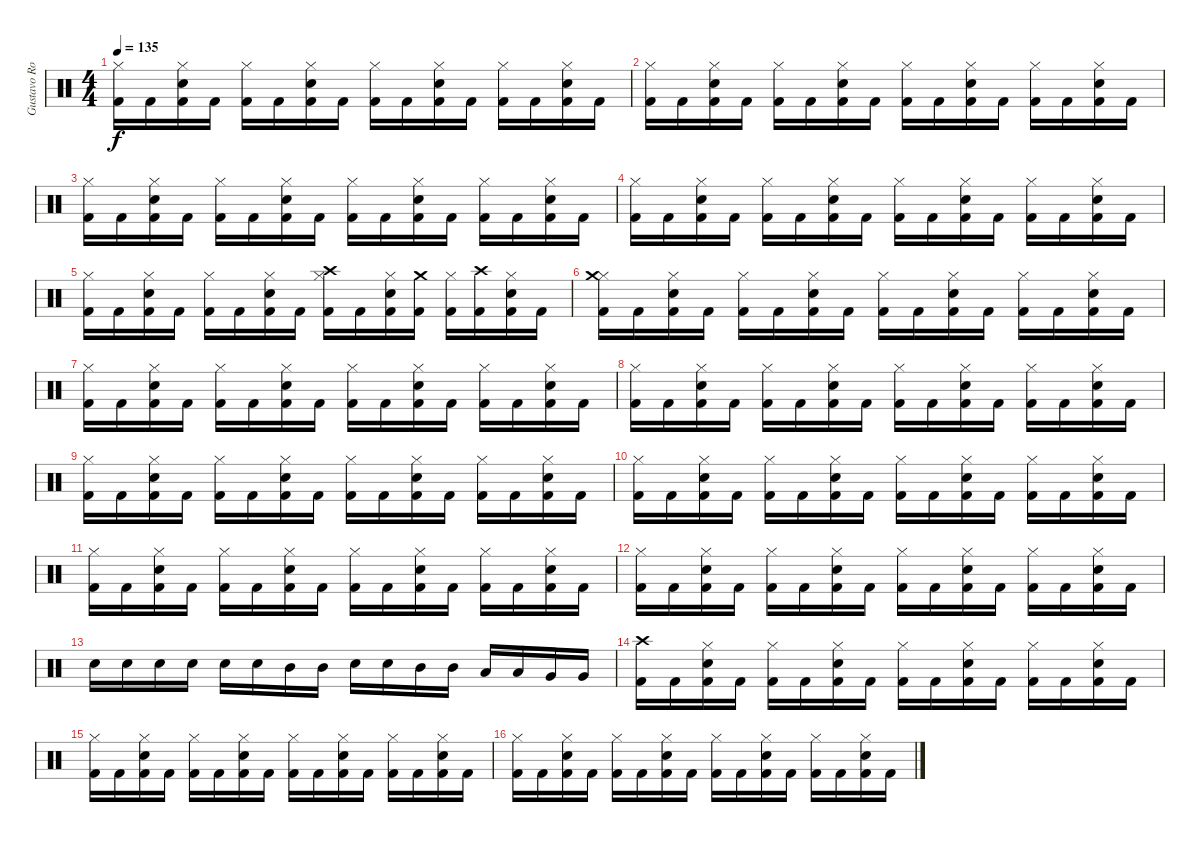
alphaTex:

\track ("Gustavo Rowek" "Gustavo Ro") {instrument percussion}
\staff {score}
\articulation defaults
\ts (4 4)
\tempo 135
\clef neutral
\ks c
("Kick (hit) 2" "Hi-Hat (closed)").16{dy f} "Kick (hit) 2".16 ("Kick (hit) 2" "Hi-Hat (closed)" "Electric Snare (hit)").16 "Kick (hit) 2".16 ("Kick (hit) 2" "Hi-Hat (closed)").16 "Kick (hit) 2".16 ("Kick (hit) 2" "Hi-Hat (closed)" "Electric Snare (hit)").16 "Kick (hit) 2".16 ("Kick (hit) 2" "Hi-Hat (closed)").16 "Kick (hit) 2".16 ("Kick (hit) 2" "Hi-Hat (closed)" "Electric Snare (hit)").16 "Kick (hit) 2".16 ("Kick (hit) 2" "Hi-Hat (closed)").16 "Kick (hit) 2".16 ("Kick (hit) 2" "Hi-Hat (closed)" "Electric Snare (hit)").16 "Kick (hit) 2".16 |
("Kick (hit) 2" "Hi-Hat (closed)").16 "Kick (hit) 2".16 ("Kick (hit) 2" "Hi-Hat (closed)" "Electric Snare (hit)").16 "Kick (hit) 2".16 ("Kick (hit) 2" "Hi-Hat (closed)").16 "Kick (hit) 2".16 ("Kick (hit) 2" "Hi-Hat (closed)" "Electric Snare (hit)").16 "Kick (hit) 2".16 ("Kick (hit) 2" "Hi-Hat (closed)").16 "Kick (hit) 2".16 ("Kick (hit) 2" "Hi-Hat (closed)" "Electric Snare (hit)").16 "Kick (hit) 2".16 ("Kick (hit) 2" "Hi-Hat (closed)").16 "Kick (hit) 2".16 ("Kick (hit) 2" "Hi-Hat (closed)" "Electric Snare (hit)").16 "Kick (hit) 2".16 |
("Kick (hit) 2" "Hi-Hat (closed)").16 "Kick (hit) 2".16 ("Kick (hit) 2" "Hi-Hat (closed)" "Electric Snare (hit)").16 "Kick (hit) 2".16 ("Kick (hit) 2" "Hi-Hat (closed)").16 "Kick (hit) 2".16 ("Kick (hit) 2" "Hi-Hat (closed)" "Electric Snare (hit)").16 "Kick (hit) 2".16 ("Kick (hit) 2" "Hi-Hat (closed)").16 "Kick (hit) 2".16 ("Kick (hit) 2" "Hi-Hat (closed)" "Electric Snare (hit)").16 "Kick (hit) 2".16 ("Kick (hit) 2" "Hi-Hat (closed)").16 "Kick (hit) 2".16 ("Kick (hit) 2" "Hi-Hat (closed)" "Electric Snare (hit)").16 "Kick (hit) 2".16 |
("Kick (hit) 2" "Hi-Hat (closed)").16 "Kick (hit) 2".16 ("Kick (hit) 2" "Hi-Hat (closed)" "Electric Snare (hit)").16 "Kick (hit) 2".16 ("Kick (hit) 2" "Hi-Hat (closed)").16 "Kick (hit) 2".16 ("Kick (hit) 2" "Hi-Hat (closed)" "Electric Snare (hit)").16 "Kick (hit) 2".16 ("Kick (hit) 2" "Hi-Hat (closed)").16 "Kick (hit) 2".16 ("Kick (hit) 2" "Hi-Hat (closed)" "Electric Snare (hit)").16 "Kick (hit) 2".16 ("Kick (hit) 2" "Hi-Hat (closed)").16 "Kick (hit) 2".16 ("Kick (hit) 2" "Hi-Hat (closed)" "Electric Snare (hit)").16 "Kick (hit) 2".16 |
("Kick (hit) 2" "Hi-Hat (closed)").16 "Kick (hit) 2".16 ("Kick (hit) 2" "Hi-Hat (closed)" "Electric Snare (hit)").16 "Kick (hit) 2".16 ("Kick (hit) 2" "Hi-Hat (closed)").16 "Kick (hit) 2".16 ("Kick (hit) 2" "Hi-Hat (closed)" "Electric Snare (hit)").16 "Kick (hit) 2".16 ("Kick (hit) 2" "Hi-Hat (closed)" "Crash high (hit)").16 "Kick (hit) 2".16 ("Kick (hit) 2" "Hi-Hat (closed)" "Electric Snare (hit)").16 ("Kick (hit) 2" "Crash medium (hit)").16 ("Kick (hit) 2" "Hi-Hat (closed)").16 ("Kick (hit) 2" "Crash high (hit)").16 ("Kick (hit) 2" "Hi-Hat (closed)" "Electric Snare (hit)").16 "Kick (hit) 2".16 |
("Kick (hit) 2" "Hi-Hat (closed)" "Crash medium (hit)").16 "Kick (hit) 2".16 ("Kick (hit) 2" "Hi-Hat (closed)" "Electric Snare (hit)").16 "Kick (hit) 2".16 ("Kick (hit) 2" "Hi-Hat (closed)").16 "Kick (hit) 2".16 ("Kick (hit) 2" "Hi-Hat (closed)" "Electric Snare (hit)").16 "Kick (hit) 2".16 ("Kick (hit) 2" "Hi-Hat (closed)").16 "Kick (hit) 2".16 ("Kick (hit) 2" "Hi-Hat (closed)" "Electric Snare (hit)").16 "Kick (hit) 2".16 ("Kick (hit) 2" "Hi-Hat (closed)").16 "Kick (hit) 2".16 ("Kick (hit) 2" "Hi-Hat (closed)" "Electric Snare (hit)").16 "Kick (hit) 2".16 |
("Kick (hit) 2" "Hi-Hat (closed)").16 "Kick (hit) 2".16 ("Kick (hit) 2" "Hi-Hat (closed)" "Electric Snare (hit)").16 "Kick (hit) 2".16 ("Kick (hit) 2" "Hi-Hat (closed)").16 "Kick (hit) 2".16 ("Kick (hit) 2" "Hi-Hat (closed)" "Electric Snare (hit)").16 "Kick (hit) 2".16 ("Kick (hit) 2" "Hi-Hat (closed)").16 "Kick (hit) 2".16 ("Kick (hit) 2" "Hi-Hat (closed)" "Electric Snare (hit)").16 "Kick (hit) 2".16 ("Kick (hit) 2" "Hi-Hat (closed)").16 "Kick (hit) 2".16 ("Kick (hit) 2" "Hi-Hat (closed)" "Electric Snare (hit)").16 "Kick (hit) 2".16 |
("Kick (hit) 2" "Hi-Hat (closed)").16 "Kick (hit) 2".16 ("Kick (hit) 2" "Hi-Hat (closed)" "Electric Snare (hit)").16 "Kick (hit) 2".16 ("Kick (hit) 2" "Hi-Hat (closed)").16 "Kick (hit) 2".16 ("Kick (hit) 2" "Hi-Hat (closed)" "Electric Snare (hit)").16 "Kick (hit) 2".16 ("Kick (hit) 2" "Hi-Hat (closed)").16 "Kick (hit) 2".16 ("Kick (hit) 2" "Hi-Hat (closed)" "Electric Snare (hit)").16 "Kick (hit) 2".16 ("Kick (hit) 2" "Hi-Hat (closed)").16 "Kick (hit) 2".16 ("Kick (hit) 2" "Hi-Hat (closed)" "Electric Snare (hit)").16 "Kick (hit) 2".16 |
("Kick (hit) 2" "Hi-Hat (closed)").16 "Kick (hit) 2".16 ("Kick (hit) 2" "Hi-Hat (closed)" "Electric Snare (hit)").16 "Kick (hit) 2".16 ("Kick (hit) 2" "Hi-Hat (closed)").16 "Kick (hit) 2".16 ("Kick (hit) 2" "Hi-Hat (closed)" "Electric Snare (hit)").16 "Kick (hit) 2".16 ("Kick (hit) 2" "Hi-Hat (closed)").16 "Kick (hit) 2".16 ("Kick (hit) 2" "Hi-Hat (closed)" "Electric Snare (hit)").16 "Kick (hit) 2".16 ("Kick (hit) 2" "Hi-Hat (closed)").16 "Kick (hit) 2".16 ("Kick (hit) 2" "Hi-Hat (closed)" "Electric Snare (hit)").16 "Kick (hit) 2".16 |
("Kick (hit) 2" "Hi-Hat (closed)").16 "Kick (hit) 2".16 ("Kick (hit) 2" "Hi-Hat (closed)" "Electric Snare (hit)").16 "Kick (hit) 2".16 ("Kick (hit) 2" "Hi-Hat (closed)").16 "Kick (hit) 2".16 ("Kick (hit) 2" "Hi-Hat (closed)" "Electric Snare (hit)").16 "Kick (hit) 2".16 ("Kick (hit) 2" "Hi-Hat (closed)").16 "Kick (hit) 2".16 ("Kick (hit) 2" "Hi-Hat (closed)" "Electric Snare (hit)").16 "Kick (hit) 2".16 ("Kick (hit) 2" "Hi-Hat (closed)").16 "Kick (hit) 2".16 ("Kick (hit) 2" "Hi-Hat (closed)" "Electric Snare (hit)").16 "Kick (hit) 2".16 |
("Kick (hit) 2" "Hi-Hat (closed)").16 "Kick (hit) 2".16 ("Kick (hit) 2" "Hi-Hat (closed)" "Electric Snare (hit)").16 "Kick (hit) 2".16 ("Kick (hit) 2" "Hi-Hat (closed)").16 "Kick (hit) 2".16 ("Kick (hit) 2" "Hi-Hat (closed)" "Electric Snare (hit)").16 "Kick (hit) 2".16 ("Kick (hit) 2" "Hi-Hat (closed)").16 "Kick (hit) 2".16 ("Kick (hit) 2" "Hi-Hat (closed)" "Electric Snare (hit)").16 "Kick (hit) 2".16 ("Kick (hit) 2" "Hi-Hat (closed)").16 "Kick (hit) 2".16 ("Kick (hit) 2" "Hi-Hat (closed)" "Electric Snare (hit)").16 "Kick (hit) 2".16 |
("Kick (hit) 2" "Hi-Hat (closed)").16 "Kick (hit) 2".16 ("Kick (hit) 2" "Hi-Hat (closed)" "Electric Snare (hit)").16 "Kick (hit) 2".16 ("Kick (hit) 2" "Hi-Hat (closed)").16 "Kick (hit) 2".16 ("Kick (hit) 2" "Hi-Hat (closed)" "Electric Snare (hit)").16 "Kick (hit) 2".16 ("Kick (hit) 2" "Hi-Hat (closed)").16 "Kick (hit) 2".16 ("Kick (hit) 2" "Hi-Hat (closed)" "Electric Snare (hit)").16 "Kick (hit) 2".16 ("Kick (hit) 2" "Hi-Hat (closed)").16 "Kick (hit) 2".16 ("Kick (hit) 2" "Hi-Hat (closed)" "Electric Snare (hit)").16 "Kick (hit) 2".16 |
"Electric Snare (hit)".16 "Electric Snare (hit)".16 "Electric Snare (hit)".16 "Electric Snare (hit)".16 "Electric Snare (hit)".16 "Electric Snare (hit)".16 "Mid Tom (hit)".16 "Mid Tom (hit)".16 "Electric Snare (hit)".16 "Electric Snare (hit)".16 "Mid Tom (hit)".16 "Mid Tom (hit)".16 "Low Tom (hit)".16 "Low Tom (hit)".16 "Very Low Tom (hit)".16 "Very Low Tom (hit)".16 |
("Kick (hit) 2" "Crash high (hit)").16 "Kick (hit) 2".16 ("Kick (hit) 2" "Hi-Hat (closed)" "Electric Snare (hit)").16 "Kick (hit) 2".16 ("Kick (hit) 2" "Hi-Hat (closed)").16 "Kick (hit) 2".16 ("Kick (hit) 2" "Hi-Hat (closed)" "Electric Snare (hit)").16 "Kick (hit) 2".16 ("Kick (hit) 2" "Hi-Hat (closed)").16 "Kick (hit) 2".16 ("Kick (hit) 2" "Hi-Hat (closed)" "Electric Snare (hit)").16 "Kick (hit) 2".16 ("Kick (hit) 2" "Hi-Hat (closed)").16 "Kick (hit) 2".16 ("Kick (hit) 2" "Hi-Hat (closed)" "Electric Snare (hit)").16 "Kick (hit) 2".16 |
("Kick (hit) 2" "Hi-Hat (closed)").16 "Kick (hit) 2".16 ("Kick (hit) 2" "Hi-Hat (closed)" "Electric Snare (hit)").16 "Kick (hit) 2".16 ("Kick (hit) 2" "Hi-Hat (closed)").16 "Kick (hit) 2".16 ("Kick (hit) 2" "Hi-Hat (closed)" "Electric Snare (hit)").16 "Kick (hit) 2".16 ("Kick (hit) 2" "Hi-Hat (closed)").16 "Kick (hit) 2".16 ("Kick (hit) 2" "Hi-Hat (closed)" "Electric Snare (hit)").16 "Kick (hit) 2".16 ("Kick (hit) 2" "Hi-Hat (closed)").16 "Kick (hit) 2".16 ("Kick (hit) 2" "Hi-Hat (closed)" "Electric Snare (hit)").16 "Kick (hit) 2".16 |
("Kick (hit) 2" "Hi-Hat (closed)").16 "Kick (hit) 2".16 ("Kick (hit) 2" "Hi-Hat (closed)" "Electric Snare (hit)").16 "Kick (hit) 2".16 ("Kick (hit) 2" "Hi-Hat (closed)").16 "Kick (hit) 2".16 ("Kick (hit) 2" "Hi-Hat (closed)" "Electric Snare (hit)").16 "Kick (hit) 2".16 ("Kick (hit) 2" "Hi-Hat (closed)").16 "Kick (hit) 2".16 ("Kick (hit) 2" "Hi-Hat (closed)" "Electric Snare (hit)").16 "Kick (hit) 2".16 ("Kick (hit) 2" "Hi-Hat (closed)").16 "Kick (hit) 2".16 ("Kick (hit) 2" "Hi-Hat (closed)" "Electric Snare (hit)").16 "Kick (hit) 2".16
